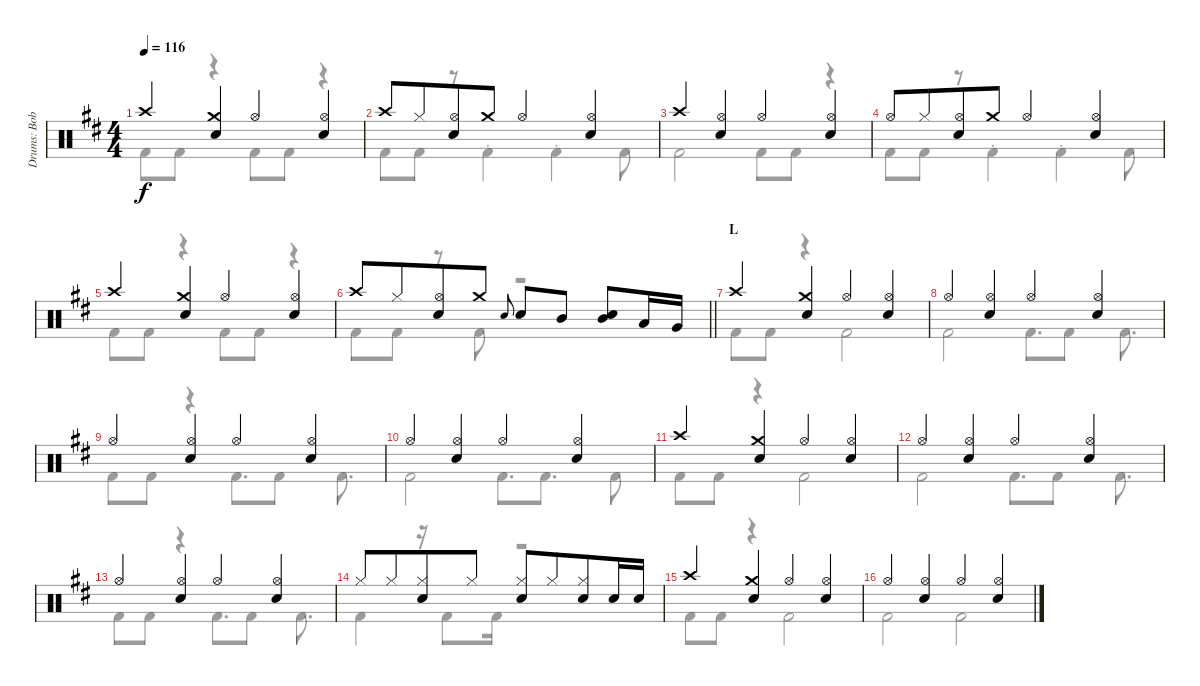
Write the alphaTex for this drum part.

\track ("Drums: Bobby" "Drums: Bob") {instrument percussion}
\staff {score}
\articulation defaults
\voice
\ts (4 4)
\tempo 116
\clef neutral
\ks d "Crash high (hit)".4{dy f}
("Crash medium (hit)" "Snare (hit) 2").4 "Hi-Hat (open)".4 ("Hi-Hat (open)" "Snare (hit) 2").4 |
"Crash high (hit)".8 "Hi-Hat (closed)".8{beam merge} ("Hi-Hat (open)" "Snare (hit) 2").8 "Crash medium (hit)".8 "Hi-Hat (open)".4 ("Hi-Hat (open)" "Snare (hit) 2").4 |
"Crash high (hit)".4 ("Hi-Hat (open)" "Snare (hit) 2").4 "Hi-Hat (open)".4 ("Hi-Hat (open)" "Snare (hit) 2").4 |
"Hi-Hat (open)".8 "Hi-Hat (closed)".8{beam merge} ("Hi-Hat (open)" "Snare (hit) 2").8 "Crash medium (hit)".8 "Hi-Hat (open)".4 ("Hi-Hat (open)" "Snare (hit) 2").4 |
"Crash high (hit)".4 ("Crash medium (hit)" "Snare (hit) 2").4 "Hi-Hat (open)".4 ("Hi-Hat (open)" "Snare (hit) 2").4 |
\barLineRight lightlight "Crash high (hit)".8 "Hi-Hat (closed)".8{beam merge}
("Hi-Hat (open)" "Snare (hit) 2").8 "Crash medium (hit)".8 "Electric Snare (hit)".8{gr onbeat} "Snare (hit) 2".8 "Mid Tom (hit)".8 ("Snare (hit) 2" "Mid Tom (hit)").8 "Low Tom (hit)".16 "Very Low Tom (hit)".16 |
\section ("" "L")
"Crash high (hit)".4 ("Crash medium (hit)" "Snare (hit) 2").4 "Hi-Hat (open)".4 ("Hi-Hat (open)" "Snare (hit) 2").4 |
"Hi-Hat (open)".4 ("Hi-Hat (open)" "Snare (hit) 2").4 "Hi-Hat (open)".4 ("Hi-Hat (open)" "Snare (hit) 2").4 |
"Hi-Hat (open)".4 ("Hi-Hat (open)" "Snare (hit) 2").4 "Hi-Hat (open)".4 ("Hi-Hat (open)" "Snare (hit) 2").4 |
"Hi-Hat (open)".4 ("Hi-Hat (open)" "Snare (hit) 2").4 "Hi-Hat (open)".4 ("Hi-Hat (open)" "Snare (hit) 2").4 |
"Crash high (hit)".4 ("Crash medium (hit)" "Snare (hit) 2").4 "Hi-Hat (open)".4 ("Hi-Hat (open)" "Snare (hit) 2").4 |
"Hi-Hat (open)".4 ("Hi-Hat (open)" "Snare (hit) 2").4 "Hi-Hat (open)".4 ("Hi-Hat (open)" "Snare (hit) 2").4 |
"Hi-Hat (open)".4 ("Hi-Hat (open)" "Snare (hit) 2").4 "Hi-Hat (open)".4 ("Hi-Hat (open)" "Snare (hit) 2").4 |
"Hi-Hat (closed)".8 "Hi-Hat (closed)".8{beam merge} ("Hi-Hat (closed)" "Snare (hit) 2").8 "Hi-Hat (closed)".8 ("Hi-Hat (closed)" "Snare (hit) 2").8 "Hi-Hat (closed)".8{beam merge} ("Hi-Hat (closed)" "Snare (hit) 2").8 "Snare (hit) 2".16 "Snare (hit) 2".16 |
"Crash high (hit)".4 ("Crash medium (hit)" "Snare (hit) 2").4 "Hi-Hat (open)".4 ("Hi-Hat (open)" "Snare (hit) 2").4 |
"Hi-Hat (open)".4 ("Hi-Hat (open)" "Snare (hit) 2").4 "Hi-Hat (open)".4 ("Hi-Hat (open)" "Snare (hit) 2").4
\voice
\clef neutral
\ottava regular
\simile none
\ks d "Kick (hit) 2".8{dy f} "Kick (hit) 2".8
r.4 "Kick (hit) 2".8 "Kick (hit) 2".8 r.4 |
"Kick (hit) 2".8 "Kick (hit) 2".8 r.8 "Kick (hit) 2"{st}.4 "Kick (hit) 2"{st}.4 "Kick (hit) 2".8 |
"Kick (hit) 2".2 "Kick (hit) 2".8 "Kick (hit) 2".8 r.4 |
"Kick (hit) 2".8 "Kick (hit) 2".8 r.8 "Kick (hit) 2"{st}.4 "Kick (hit) 2"{st}.4 "Kick (hit) 2".8 |
"Kick (hit) 2".8 "Kick (hit) 2".8 r.4 "Kick (hit) 2".8 "Kick (hit) 2".8 r.4 |
\barLineRight lightlight "Kick (hit) 2".8 "Kick (hit) 2".8
r.8 "Kick (hit) 2".8 r.2 |
"Kick (hit) 2".8 "Kick (hit) 2".8 r.4 "Kick (hit) 2".2 |
"Kick (hit) 2".2 "Kick (hit) 2".8{d} "Kick (hit) 2".8 "Kick (hit) 2".8{d} |
"Kick (hit) 2".8 "Kick (hit) 2".8 r.4 "Kick (hit) 2".8{d} "Kick (hit) 2".8 "Kick (hit) 2".8{d} |
"Kick (hit) 2".2 "Kick (hit) 2".8{d} "Kick (hit) 2".8{d} "Kick (hit) 2".8 |
"Kick (hit) 2".8 "Kick (hit) 2".8 r.4 "Kick (hit) 2".2 |
"Kick (hit) 2".2 "Kick (hit) 2".8{d} "Kick (hit) 2".8 "Kick (hit) 2".8{d} |
"Kick (hit) 2".8 "Kick (hit) 2".8 r.4 "Kick (hit) 2".8{d} "Kick (hit) 2".8 "Kick (hit) 2".8{d} |
"Kick (hit) 2".4 r.16 "Kick (hit) 2".8 "Kick (hit) 2".16 r.2 |
"Kick (hit) 2".8 "Kick (hit) 2".8 r.4 "Kick (hit) 2".2 |
"Kick (hit) 2".2 "Kick (hit) 2".2
